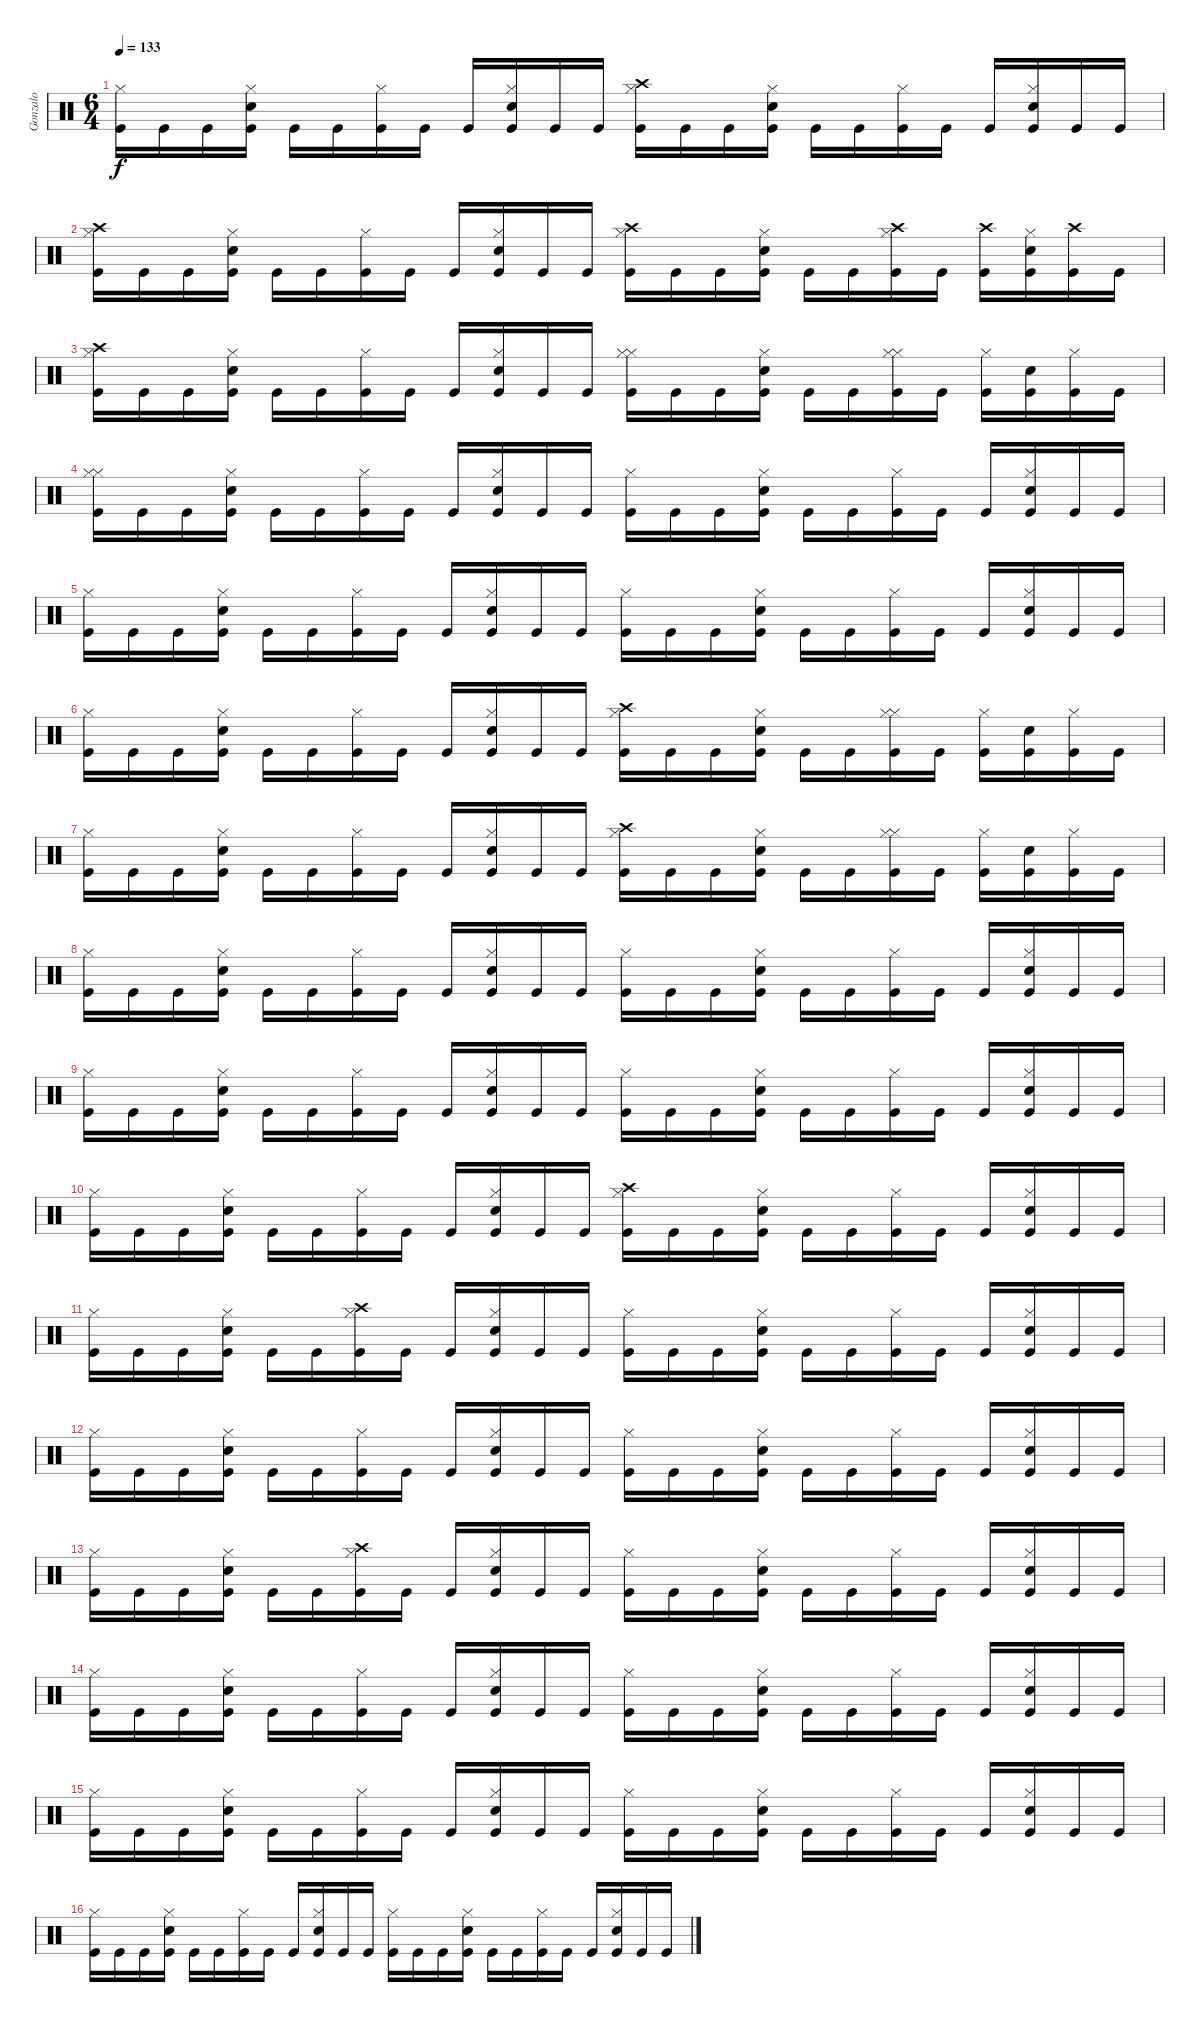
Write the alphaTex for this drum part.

\track ("Gonzalo" "Gonzalo") {instrument percussion}
\staff {score}
\articulation defaults
\ts (6 4)
\tempo 133
\clef neutral
\ks c
("Kick (hit)" "Hi-Hat (closed)").16{dy f} "Kick (hit)".16 "Kick (hit)".16 ("Kick (hit)" "Hi-Hat (closed)" "Electric Snare (hit)").16 "Kick (hit)".16 "Kick (hit)".16 ("Kick (hit)" "Hi-Hat (closed)").16 "Kick (hit)".16 "Kick (hit)".16 ("Kick (hit)" "Hi-Hat (closed)" "Electric Snare (hit)").16 "Kick (hit)".16 "Kick (hit)".16 ("Kick (hit)" "Hi-Hat (closed)" "Crash high (hit)").16 "Kick (hit)".16 "Kick (hit)".16 ("Kick (hit)" "Hi-Hat (closed)" "Electric Snare (hit)").16 "Kick (hit)".16 "Kick (hit)".16 ("Kick (hit)" "Hi-Hat (closed)").16 "Kick (hit)".16 "Kick (hit)".16 ("Kick (hit)" "Hi-Hat (closed)" "Electric Snare (hit)").16 "Kick (hit)".16 "Kick (hit)".16 |
("Kick (hit)" "Hi-Hat (closed)" "Crash high (hit)").16 "Kick (hit)".16 "Kick (hit)".16 ("Kick (hit)" "Hi-Hat (closed)" "Electric Snare (hit)").16 "Kick (hit)".16 "Kick (hit)".16 ("Kick (hit)" "Hi-Hat (closed)").16 "Kick (hit)".16 "Kick (hit)".16 ("Kick (hit)" "Hi-Hat (closed)" "Electric Snare (hit)").16 "Kick (hit)".16 "Kick (hit)".16 ("Kick (hit)" "Hi-Hat (closed)" "Crash high (hit)").16 "Kick (hit)".16 "Kick (hit)".16 ("Kick (hit)" "Hi-Hat (closed)" "Electric Snare (hit)").16 "Kick (hit)".16 "Kick (hit)".16 ("Kick (hit)" "Hi-Hat (closed)" "Crash high (hit)").16 "Kick (hit)".16 ("Kick (hit)" "Crash high (hit)").16 ("Kick (hit)" "Hi-Hat (closed)" "Electric Snare (hit)").16 ("Kick (hit)" "Crash high (hit)").16 "Kick (hit)".16 |
("Kick (hit)" "Hi-Hat (closed)" "Crash high (hit)").16 "Kick (hit)".16 "Kick (hit)".16 ("Kick (hit)" "Hi-Hat (closed)" "Electric Snare (hit)").16 "Kick (hit)".16 "Kick (hit)".16 ("Kick (hit)" "Hi-Hat (closed)").16 "Kick (hit)".16 "Kick (hit)".16 ("Kick (hit)" "Hi-Hat (closed)" "Electric Snare (hit)").16 "Kick (hit)".16 "Kick (hit)".16 ("Kick (hit)" "Hi-Hat (closed)" "Hi-Hat (closed)").16 "Kick (hit)".16 "Kick (hit)".16 ("Kick (hit)" "Hi-Hat (closed)" "Electric Snare (hit)").16 "Kick (hit)".16 "Kick (hit)".16 ("Kick (hit)" "Hi-Hat (closed)" "Hi-Hat (closed)").16 "Kick (hit)".16 ("Kick (hit)" "Hi-Hat (closed)").16 ("Kick (hit)" "Electric Snare (hit)").16 ("Kick (hit)" "Hi-Hat (closed)").16 "Kick (hit)".16 |
("Kick (hit)" "Hi-Hat (closed)" "Hi-Hat (closed)").16 "Kick (hit)".16 "Kick (hit)".16 ("Kick (hit)" "Hi-Hat (closed)" "Electric Snare (hit)").16 "Kick (hit)".16 "Kick (hit)".16 ("Kick (hit)" "Hi-Hat (closed)").16 "Kick (hit)".16 "Kick (hit)".16 ("Kick (hit)" "Hi-Hat (closed)" "Electric Snare (hit)").16 "Kick (hit)".16 "Kick (hit)".16 ("Kick (hit)" "Hi-Hat (closed)").16 "Kick (hit)".16 "Kick (hit)".16 ("Kick (hit)" "Hi-Hat (closed)" "Electric Snare (hit)").16 "Kick (hit)".16 "Kick (hit)".16 ("Kick (hit)" "Hi-Hat (closed)").16 "Kick (hit)".16 "Kick (hit)".16 ("Kick (hit)" "Hi-Hat (closed)" "Electric Snare (hit)").16 "Kick (hit)".16 "Kick (hit)".16 |
("Kick (hit)" "Hi-Hat (closed)").16 "Kick (hit)".16 "Kick (hit)".16 ("Kick (hit)" "Hi-Hat (closed)" "Electric Snare (hit)").16 "Kick (hit)".16 "Kick (hit)".16 ("Kick (hit)" "Hi-Hat (closed)").16 "Kick (hit)".16 "Kick (hit)".16 ("Kick (hit)" "Hi-Hat (closed)" "Electric Snare (hit)").16 "Kick (hit)".16 "Kick (hit)".16 ("Kick (hit)" "Hi-Hat (closed)").16 "Kick (hit)".16 "Kick (hit)".16 ("Kick (hit)" "Hi-Hat (closed)" "Electric Snare (hit)").16 "Kick (hit)".16 "Kick (hit)".16 ("Kick (hit)" "Hi-Hat (closed)").16 "Kick (hit)".16 "Kick (hit)".16 ("Kick (hit)" "Hi-Hat (closed)" "Electric Snare (hit)").16 "Kick (hit)".16 "Kick (hit)".16 |
("Kick (hit)" "Hi-Hat (closed)").16 "Kick (hit)".16 "Kick (hit)".16 ("Kick (hit)" "Hi-Hat (closed)" "Electric Snare (hit)").16 "Kick (hit)".16 "Kick (hit)".16 ("Kick (hit)" "Hi-Hat (closed)").16 "Kick (hit)".16 "Kick (hit)".16 ("Kick (hit)" "Hi-Hat (closed)" "Electric Snare (hit)").16 "Kick (hit)".16 "Kick (hit)".16 ("Kick (hit)" "Hi-Hat (closed)" "Crash high (hit)").16 "Kick (hit)".16 "Kick (hit)".16 ("Kick (hit)" "Hi-Hat (closed)" "Electric Snare (hit)").16 "Kick (hit)".16 "Kick (hit)".16 ("Kick (hit)" "Hi-Hat (closed)" "Hi-Hat (closed)").16 "Kick (hit)".16 ("Kick (hit)" "Hi-Hat (closed)").16 ("Kick (hit)" "Electric Snare (hit)").16 ("Kick (hit)" "Hi-Hat (closed)").16 "Kick (hit)".16 |
("Kick (hit)" "Hi-Hat (closed)").16 "Kick (hit)".16 "Kick (hit)".16 ("Kick (hit)" "Hi-Hat (closed)" "Electric Snare (hit)").16 "Kick (hit)".16 "Kick (hit)".16 ("Kick (hit)" "Hi-Hat (closed)").16 "Kick (hit)".16 "Kick (hit)".16 ("Kick (hit)" "Hi-Hat (closed)" "Electric Snare (hit)").16 "Kick (hit)".16 "Kick (hit)".16 ("Kick (hit)" "Hi-Hat (closed)" "Crash high (hit)").16 "Kick (hit)".16 "Kick (hit)".16 ("Kick (hit)" "Hi-Hat (closed)" "Electric Snare (hit)").16 "Kick (hit)".16 "Kick (hit)".16 ("Kick (hit)" "Hi-Hat (closed)" "Hi-Hat (closed)").16 "Kick (hit)".16 ("Kick (hit)" "Hi-Hat (closed)").16 ("Kick (hit)" "Electric Snare (hit)").16 ("Kick (hit)" "Hi-Hat (closed)").16 "Kick (hit)".16 |
("Kick (hit)" "Hi-Hat (closed)").16 "Kick (hit)".16 "Kick (hit)".16 ("Kick (hit)" "Hi-Hat (closed)" "Electric Snare (hit)").16 "Kick (hit)".16 "Kick (hit)".16 ("Kick (hit)" "Hi-Hat (closed)").16 "Kick (hit)".16 "Kick (hit)".16 ("Kick (hit)" "Hi-Hat (closed)" "Electric Snare (hit)").16 "Kick (hit)".16 "Kick (hit)".16 ("Kick (hit)" "Hi-Hat (closed)").16 "Kick (hit)".16 "Kick (hit)".16 ("Kick (hit)" "Hi-Hat (closed)" "Electric Snare (hit)").16 "Kick (hit)".16 "Kick (hit)".16 ("Kick (hit)" "Hi-Hat (closed)").16 "Kick (hit)".16 "Kick (hit)".16 ("Kick (hit)" "Hi-Hat (closed)" "Electric Snare (hit)").16 "Kick (hit)".16 "Kick (hit)".16 |
("Kick (hit)" "Hi-Hat (closed)").16 "Kick (hit)".16 "Kick (hit)".16 ("Kick (hit)" "Hi-Hat (closed)" "Electric Snare (hit)").16 "Kick (hit)".16 "Kick (hit)".16 ("Kick (hit)" "Hi-Hat (closed)").16 "Kick (hit)".16 "Kick (hit)".16 ("Kick (hit)" "Hi-Hat (closed)" "Electric Snare (hit)").16 "Kick (hit)".16 "Kick (hit)".16 ("Kick (hit)" "Hi-Hat (closed)").16 "Kick (hit)".16 "Kick (hit)".16 ("Kick (hit)" "Hi-Hat (closed)" "Electric Snare (hit)").16 "Kick (hit)".16 "Kick (hit)".16 ("Kick (hit)" "Hi-Hat (closed)").16 "Kick (hit)".16 "Kick (hit)".16 ("Kick (hit)" "Hi-Hat (closed)" "Electric Snare (hit)").16 "Kick (hit)".16 "Kick (hit)".16 |
("Kick (hit)" "Hi-Hat (closed)").16 "Kick (hit)".16 "Kick (hit)".16 ("Kick (hit)" "Hi-Hat (closed)" "Electric Snare (hit)").16 "Kick (hit)".16 "Kick (hit)".16 ("Kick (hit)" "Hi-Hat (closed)").16 "Kick (hit)".16 "Kick (hit)".16 ("Kick (hit)" "Hi-Hat (closed)" "Electric Snare (hit)").16 "Kick (hit)".16 "Kick (hit)".16 ("Kick (hit)" "Hi-Hat (closed)" "Crash high (hit)").16 "Kick (hit)".16 "Kick (hit)".16 ("Kick (hit)" "Hi-Hat (closed)" "Electric Snare (hit)").16 "Kick (hit)".16 "Kick (hit)".16 ("Kick (hit)" "Hi-Hat (closed)").16 "Kick (hit)".16 "Kick (hit)".16 ("Kick (hit)" "Hi-Hat (closed)" "Electric Snare (hit)").16 "Kick (hit)".16 "Kick (hit)".16 |
("Kick (hit)" "Hi-Hat (closed)").16 "Kick (hit)".16 "Kick (hit)".16 ("Kick (hit)" "Hi-Hat (closed)" "Electric Snare (hit)").16 "Kick (hit)".16 "Kick (hit)".16 ("Kick (hit)" "Hi-Hat (closed)" "Crash high (hit)").16 "Kick (hit)".16 "Kick (hit)".16 ("Kick (hit)" "Hi-Hat (closed)" "Electric Snare (hit)").16 "Kick (hit)".16 "Kick (hit)".16 ("Kick (hit)" "Hi-Hat (closed)").16 "Kick (hit)".16 "Kick (hit)".16 ("Kick (hit)" "Hi-Hat (closed)" "Electric Snare (hit)").16 "Kick (hit)".16 "Kick (hit)".16 ("Kick (hit)" "Hi-Hat (closed)").16 "Kick (hit)".16 "Kick (hit)".16 ("Kick (hit)" "Hi-Hat (closed)" "Electric Snare (hit)").16 "Kick (hit)".16 "Kick (hit)".16 |
("Kick (hit)" "Hi-Hat (closed)").16 "Kick (hit)".16 "Kick (hit)".16 ("Kick (hit)" "Hi-Hat (closed)" "Electric Snare (hit)").16 "Kick (hit)".16 "Kick (hit)".16 ("Kick (hit)" "Hi-Hat (closed)").16 "Kick (hit)".16 "Kick (hit)".16 ("Kick (hit)" "Hi-Hat (closed)" "Electric Snare (hit)").16 "Kick (hit)".16 "Kick (hit)".16 ("Kick (hit)" "Hi-Hat (closed)").16 "Kick (hit)".16 "Kick (hit)".16 ("Kick (hit)" "Hi-Hat (closed)" "Electric Snare (hit)").16 "Kick (hit)".16 "Kick (hit)".16 ("Kick (hit)" "Hi-Hat (closed)").16 "Kick (hit)".16 "Kick (hit)".16 ("Kick (hit)" "Hi-Hat (closed)" "Electric Snare (hit)").16 "Kick (hit)".16 "Kick (hit)".16 |
("Kick (hit)" "Hi-Hat (closed)").16 "Kick (hit)".16 "Kick (hit)".16 ("Kick (hit)" "Hi-Hat (closed)" "Electric Snare (hit)").16 "Kick (hit)".16 "Kick (hit)".16 ("Kick (hit)" "Hi-Hat (closed)" "Crash high (hit)").16 "Kick (hit)".16 "Kick (hit)".16 ("Kick (hit)" "Hi-Hat (closed)" "Electric Snare (hit)").16 "Kick (hit)".16 "Kick (hit)".16 ("Kick (hit)" "Hi-Hat (closed)").16 "Kick (hit)".16 "Kick (hit)".16 ("Kick (hit)" "Hi-Hat (closed)" "Electric Snare (hit)").16 "Kick (hit)".16 "Kick (hit)".16 ("Kick (hit)" "Hi-Hat (closed)").16 "Kick (hit)".16 "Kick (hit)".16 ("Kick (hit)" "Hi-Hat (closed)" "Electric Snare (hit)").16 "Kick (hit)".16 "Kick (hit)".16 |
("Kick (hit)" "Hi-Hat (closed)").16 "Kick (hit)".16 "Kick (hit)".16 ("Kick (hit)" "Hi-Hat (closed)" "Electric Snare (hit)").16 "Kick (hit)".16 "Kick (hit)".16 ("Kick (hit)" "Hi-Hat (closed)").16 "Kick (hit)".16 "Kick (hit)".16 ("Kick (hit)" "Hi-Hat (closed)" "Electric Snare (hit)").16 "Kick (hit)".16 "Kick (hit)".16 ("Kick (hit)" "Hi-Hat (closed)").16 "Kick (hit)".16 "Kick (hit)".16 ("Kick (hit)" "Hi-Hat (closed)" "Electric Snare (hit)").16 "Kick (hit)".16 "Kick (hit)".16 ("Kick (hit)" "Hi-Hat (closed)").16 "Kick (hit)".16 "Kick (hit)".16 ("Kick (hit)" "Hi-Hat (closed)" "Electric Snare (hit)").16 "Kick (hit)".16 "Kick (hit)".16 |
("Kick (hit)" "Hi-Hat (closed)").16 "Kick (hit)".16 "Kick (hit)".16 ("Kick (hit)" "Hi-Hat (closed)" "Electric Snare (hit)").16 "Kick (hit)".16 "Kick (hit)".16 ("Kick (hit)" "Hi-Hat (closed)").16 "Kick (hit)".16 "Kick (hit)".16 ("Kick (hit)" "Hi-Hat (closed)" "Electric Snare (hit)").16 "Kick (hit)".16 "Kick (hit)".16 ("Kick (hit)" "Hi-Hat (closed)").16 "Kick (hit)".16 "Kick (hit)".16 ("Kick (hit)" "Hi-Hat (closed)" "Electric Snare (hit)").16 "Kick (hit)".16 "Kick (hit)".16 ("Kick (hit)" "Hi-Hat (closed)").16 "Kick (hit)".16 "Kick (hit)".16 ("Kick (hit)" "Hi-Hat (closed)" "Electric Snare (hit)").16 "Kick (hit)".16 "Kick (hit)".16 |
("Kick (hit)" "Hi-Hat (closed)").16 "Kick (hit)".16 "Kick (hit)".16 ("Kick (hit)" "Hi-Hat (closed)" "Electric Snare (hit)").16 "Kick (hit)".16 "Kick (hit)".16 ("Kick (hit)" "Hi-Hat (closed)").16 "Kick (hit)".16 "Kick (hit)".16 ("Kick (hit)" "Hi-Hat (closed)" "Electric Snare (hit)").16 "Kick (hit)".16 "Kick (hit)".16 ("Kick (hit)" "Hi-Hat (closed)").16 "Kick (hit)".16 "Kick (hit)".16 ("Kick (hit)" "Hi-Hat (closed)" "Electric Snare (hit)").16 "Kick (hit)".16 "Kick (hit)".16 ("Kick (hit)" "Hi-Hat (closed)").16 "Kick (hit)".16 "Kick (hit)".16 ("Kick (hit)" "Hi-Hat (closed)" "Electric Snare (hit)").16 "Kick (hit)".16 "Kick (hit)".16
